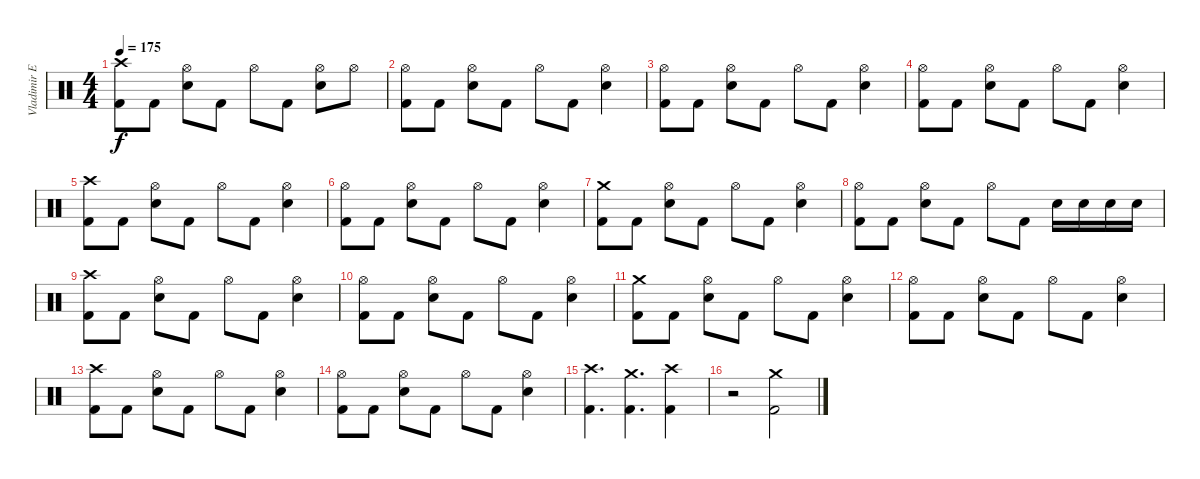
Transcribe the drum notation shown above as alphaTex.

\track ("Vladimir Ermakoff" "Vladimir E") {instrument percussion}
\staff {score}
\articulation defaults
\ts (4 4)
\tempo 175
\clef neutral
\ks c
("Crash high (hit)" "Kick (hit) 2").8{dy f} "Kick (hit) 2".8 ("Hi-Hat (open)" "Electric Snare (hit)").8 "Kick (hit) 2".8 "Hi-Hat (open)".8 "Kick (hit) 2".8 ("Hi-Hat (open)" "Electric Snare (hit)").8 "Hi-Hat (open)".8 |
("Hi-Hat (open)" "Kick (hit) 2").8 "Kick (hit) 2".8 ("Hi-Hat (open)" "Electric Snare (hit)").8 "Kick (hit) 2".8 "Hi-Hat (open)".8 "Kick (hit) 2".8 ("Hi-Hat (open)" "Electric Snare (hit)").4 |
("Hi-Hat (open)" "Kick (hit) 2").8 "Kick (hit) 2".8 ("Hi-Hat (open)" "Electric Snare (hit)").8 "Kick (hit) 2".8 "Hi-Hat (open)".8 "Kick (hit) 2".8 ("Hi-Hat (open)" "Electric Snare (hit)").4 |
("Hi-Hat (open)" "Kick (hit) 2").8 "Kick (hit) 2".8 ("Hi-Hat (open)" "Electric Snare (hit)").8 "Kick (hit) 2".8 "Hi-Hat (open)".8 "Kick (hit) 2".8 ("Hi-Hat (open)" "Electric Snare (hit)").4 |
("Crash high (hit)" "Kick (hit) 2").8 "Kick (hit) 2".8 ("Hi-Hat (open)" "Electric Snare (hit)").8 "Kick (hit) 2".8 "Hi-Hat (open)".8 "Kick (hit) 2".8 ("Hi-Hat (open)" "Electric Snare (hit)").4 |
("Hi-Hat (open)" "Kick (hit) 2").8 "Kick (hit) 2".8 ("Hi-Hat (open)" "Electric Snare (hit)").8 "Kick (hit) 2".8 "Hi-Hat (open)".8 "Kick (hit) 2".8 ("Hi-Hat (open)" "Electric Snare (hit)").4 |
("Crash medium (hit)" "Kick (hit) 2").8 "Kick (hit) 2".8 ("Hi-Hat (open)" "Electric Snare (hit)").8 "Kick (hit) 2".8 "Hi-Hat (open)".8 "Kick (hit) 2".8 ("Hi-Hat (open)" "Electric Snare (hit)").4 |
("Hi-Hat (open)" "Kick (hit) 2").8 "Kick (hit) 2".8 ("Hi-Hat (open)" "Electric Snare (hit)").8 "Kick (hit) 2".8 "Hi-Hat (open)".8 "Kick (hit) 2".8 "Electric Snare (hit)".16 "Electric Snare (hit)".16 "Electric Snare (hit)".16 "Electric Snare (hit)".16 |
("Crash high (hit)" "Kick (hit) 2").8 "Kick (hit) 2".8 ("Hi-Hat (open)" "Electric Snare (hit)").8 "Kick (hit) 2".8 "Hi-Hat (open)".8 "Kick (hit) 2".8 ("Hi-Hat (open)" "Electric Snare (hit)").4 |
("Hi-Hat (open)" "Kick (hit) 2").8 "Kick (hit) 2".8 ("Hi-Hat (open)" "Electric Snare (hit)").8 "Kick (hit) 2".8 "Hi-Hat (open)".8 "Kick (hit) 2".8 ("Hi-Hat (open)" "Electric Snare (hit)").4 |
("Crash medium (hit)" "Kick (hit) 2").8 "Kick (hit) 2".8 ("Hi-Hat (open)" "Electric Snare (hit)").8 "Kick (hit) 2".8 "Hi-Hat (open)".8 "Kick (hit) 2".8 ("Hi-Hat (open)" "Electric Snare (hit)").4 |
("Hi-Hat (open)" "Kick (hit) 2").8 "Kick (hit) 2".8 ("Hi-Hat (open)" "Electric Snare (hit)").8 "Kick (hit) 2".8 "Hi-Hat (open)".8 "Kick (hit) 2".8 ("Hi-Hat (open)" "Electric Snare (hit)").4 |
("Crash high (hit)" "Kick (hit) 2").8 "Kick (hit) 2".8 ("Hi-Hat (open)" "Electric Snare (hit)").8 "Kick (hit) 2".8 "Hi-Hat (open)".8 "Kick (hit) 2".8 ("Hi-Hat (open)" "Electric Snare (hit)").4 |
("Hi-Hat (open)" "Kick (hit) 2").8 "Kick (hit) 2".8 ("Hi-Hat (open)" "Electric Snare (hit)").8 "Kick (hit) 2".8 "Hi-Hat (open)".8 "Kick (hit) 2".8 ("Hi-Hat (open)" "Electric Snare (hit)").4 |
("Crash high (hit)" "Kick (hit) 2").4{d} ("Crash medium (hit)" "Kick (hit) 2").4{d} ("Crash high (hit)" "Kick (hit) 2").4 |
r.2 ("Crash medium (hit)" "Kick (hit) 2").2
